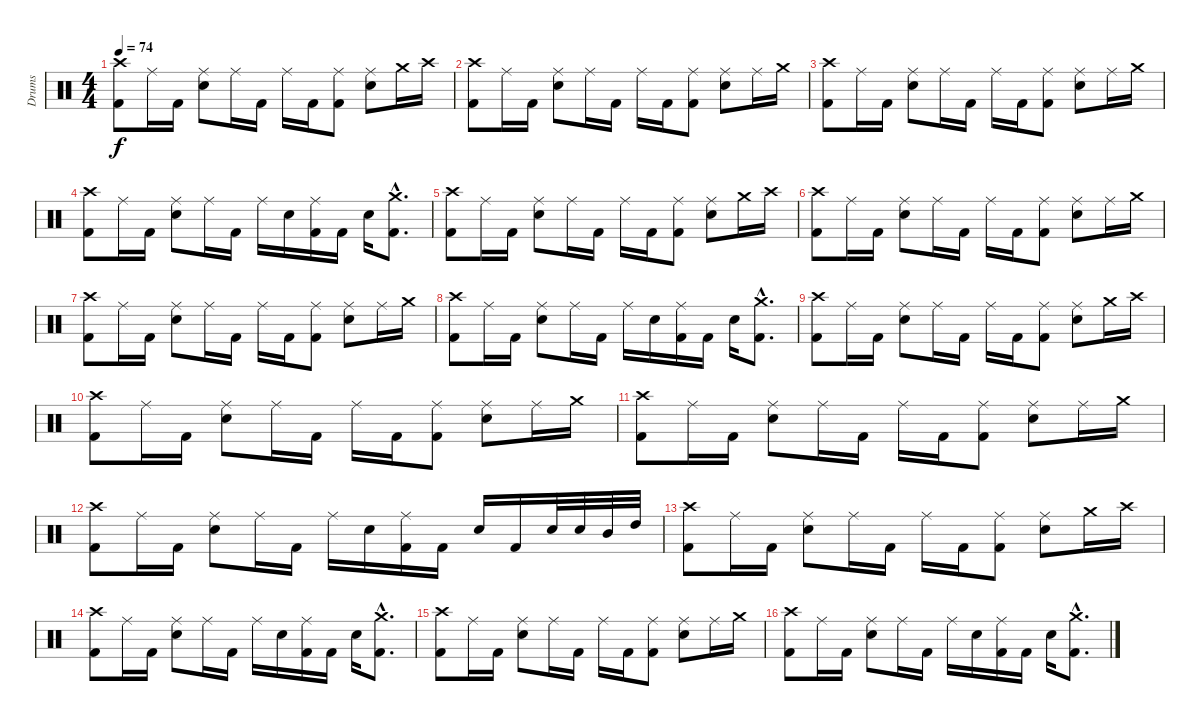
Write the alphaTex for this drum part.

\track ("Drums" "Drums") {instrument percussion}
\staff {score}
\articulation defaults
\ts (4 4)
\tempo 74
\clef neutral
\ks c
("Crash high (hit)" "Kick (hit) 2").8{dy f} "Ride (middle)".16 "Kick (hit) 2".16 ("Ride (middle)" "Snare (hit) 2").8 "Ride (middle)".16 "Kick (hit) 2".16 "Ride (middle)".16 "Kick (hit) 2".16 ("Ride (middle)" "Kick (hit) 2").8 ("Ride (middle)" "Snare (hit) 2").8 "Crash medium (hit)".16 "Crash high (hit)".16 |
("Crash high (hit)" "Kick (hit) 2").8 "Ride (middle)".16 "Kick (hit) 2".16 ("Ride (middle)" "Snare (hit) 2").8 "Ride (middle)".16 "Kick (hit) 2".16 "Ride (middle)".16 "Kick (hit) 2".16 ("Ride (middle)" "Kick (hit) 2").8 ("Ride (middle)" "Snare (hit) 2").8 "Ride (middle)".16 "Crash medium (hit)".16 |
("Crash high (hit)" "Kick (hit) 2").8 "Ride (middle)".16 "Kick (hit) 2".16 ("Ride (middle)" "Snare (hit) 2").8 "Ride (middle)".16 "Kick (hit) 2".16 "Ride (middle)".16 "Kick (hit) 2".16 ("Ride (middle)" "Kick (hit) 2").8 ("Ride (middle)" "Snare (hit) 2").8 "Ride (middle)".16 "Crash medium (hit)".16 |
("Crash high (hit)" "Kick (hit) 2").8 "Ride (middle)".16 "Kick (hit) 2".16 ("Ride (middle)" "Snare (hit) 2").8 "Ride (middle)".16 "Kick (hit) 2".16 "Ride (middle)".16 "Snare (hit) 2".16 ("Ride (middle)" "Kick (hit) 2").16 "Kick (hit) 2".16 "Snare (hit) 2".16 ("Crash medium (hit)"{hac} "Kick (hit) 2"{hac}).8{d} |
("Crash high (hit)" "Kick (hit) 2").8 "Ride (middle)".16 "Kick (hit) 2".16 ("Ride (middle)" "Snare (hit) 2").8 "Ride (middle)".16 "Kick (hit) 2".16 "Ride (middle)".16 "Kick (hit) 2".16 ("Ride (middle)" "Kick (hit) 2").8 ("Ride (middle)" "Snare (hit) 2").8 "Crash medium (hit)".16 "Crash high (hit)".16 |
("Crash high (hit)" "Kick (hit) 2").8 "Ride (middle)".16 "Kick (hit) 2".16 ("Ride (middle)" "Snare (hit) 2").8 "Ride (middle)".16 "Kick (hit) 2".16 "Ride (middle)".16 "Kick (hit) 2".16 ("Ride (middle)" "Kick (hit) 2").8 ("Ride (middle)" "Snare (hit) 2").8 "Ride (middle)".16 "Crash medium (hit)".16 |
("Crash high (hit)" "Kick (hit) 2").8 "Ride (middle)".16 "Kick (hit) 2".16 ("Ride (middle)" "Snare (hit) 2").8 "Ride (middle)".16 "Kick (hit) 2".16 "Ride (middle)".16 "Kick (hit) 2".16 ("Ride (middle)" "Kick (hit) 2").8 ("Ride (middle)" "Snare (hit) 2").8 "Ride (middle)".16 "Crash medium (hit)".16 |
("Crash high (hit)" "Kick (hit) 2").8 "Ride (middle)".16 "Kick (hit) 2".16 ("Ride (middle)" "Snare (hit) 2").8 "Ride (middle)".16 "Kick (hit) 2".16 "Ride (middle)".16 "Snare (hit) 2".16 ("Ride (middle)" "Kick (hit) 2").16 "Kick (hit) 2".16 "Snare (hit) 2".16 ("Crash medium (hit)"{hac} "Kick (hit) 2"{hac}).8{d} |
("Crash high (hit)" "Kick (hit) 2").8 "Ride (middle)".16 "Kick (hit) 2".16 ("Ride (middle)" "Snare (hit) 2").8 "Ride (middle)".16 "Kick (hit) 2".16 "Ride (middle)".16 "Kick (hit) 2".16 ("Ride (middle)" "Kick (hit) 2").8 ("Ride (middle)" "Snare (hit) 2").8 "Crash medium (hit)".16 "Crash high (hit)".16 |
("Crash high (hit)" "Kick (hit) 2").8 "Ride (middle)".16 "Kick (hit) 2".16 ("Ride (middle)" "Snare (hit) 2").8 "Ride (middle)".16 "Kick (hit) 2".16 "Ride (middle)".16 "Kick (hit) 2".16 ("Ride (middle)" "Kick (hit) 2").8 ("Ride (middle)" "Snare (hit) 2").8 "Ride (middle)".16 "Crash medium (hit)".16 |
("Crash high (hit)" "Kick (hit) 2").8 "Ride (middle)".16 "Kick (hit) 2".16 ("Ride (middle)" "Snare (hit) 2").8 "Ride (middle)".16 "Kick (hit) 2".16 "Ride (middle)".16 "Kick (hit) 2".16 ("Ride (middle)" "Kick (hit) 2").8 ("Ride (middle)" "Snare (hit) 2").8 "Ride (middle)".16 "Crash medium (hit)".16 |
("Crash high (hit)" "Kick (hit) 2").8 "Ride (middle)".16 "Kick (hit) 2".16 ("Ride (middle)" "Snare (hit) 2").8 "Ride (middle)".16 "Kick (hit) 2".16 "Ride (middle)".16 "Snare (hit) 2".16 ("Ride (middle)" "Kick (hit) 2").16 "Kick (hit) 2".16 "Snare (hit) 2".16 "Kick (hit) 2".16 "Snare (hit) 2".32 "Snare (hit) 2".32 "Mid Tom (hit)".32 "High Tom (hit)".32 |
("Crash high (hit)" "Kick (hit) 2").8 "Ride (middle)".16 "Kick (hit) 2".16 ("Ride (middle)" "Snare (hit) 2").8 "Ride (middle)".16 "Kick (hit) 2".16 "Ride (middle)".16 "Kick (hit) 2".16 ("Ride (middle)" "Kick (hit) 2").8 ("Ride (middle)" "Snare (hit) 2").8 "Crash medium (hit)".16 "Crash high (hit)".16 |
("Crash high (hit)" "Kick (hit) 2").8 "Ride (middle)".16 "Kick (hit) 2".16 ("Ride (middle)" "Snare (hit) 2").8 "Ride (middle)".16 "Kick (hit) 2".16 "Ride (middle)".16 "Snare (hit) 2".16 ("Ride (middle)" "Kick (hit) 2").16 "Kick (hit) 2".16 "Snare (hit) 2".16 ("Crash medium (hit)"{hac} "Kick (hit) 2"{hac}).8{d} |
("Crash high (hit)" "Kick (hit) 2").8 "Ride (middle)".16 "Kick (hit) 2".16 ("Ride (middle)" "Snare (hit) 2").8 "Ride (middle)".16 "Kick (hit) 2".16 "Ride (middle)".16 "Kick (hit) 2".16 ("Ride (middle)" "Kick (hit) 2").8 ("Ride (middle)" "Snare (hit) 2").8 "Ride (middle)".16 "Crash medium (hit)".16 |
("Crash high (hit)" "Kick (hit) 2").8 "Ride (middle)".16 "Kick (hit) 2".16 ("Ride (middle)" "Snare (hit) 2").8 "Ride (middle)".16 "Kick (hit) 2".16 "Ride (middle)".16 "Snare (hit) 2".16 ("Ride (middle)" "Kick (hit) 2").16 "Kick (hit) 2".16 "Snare (hit) 2".16 ("Crash medium (hit)"{hac} "Kick (hit) 2"{hac}).8{d}
